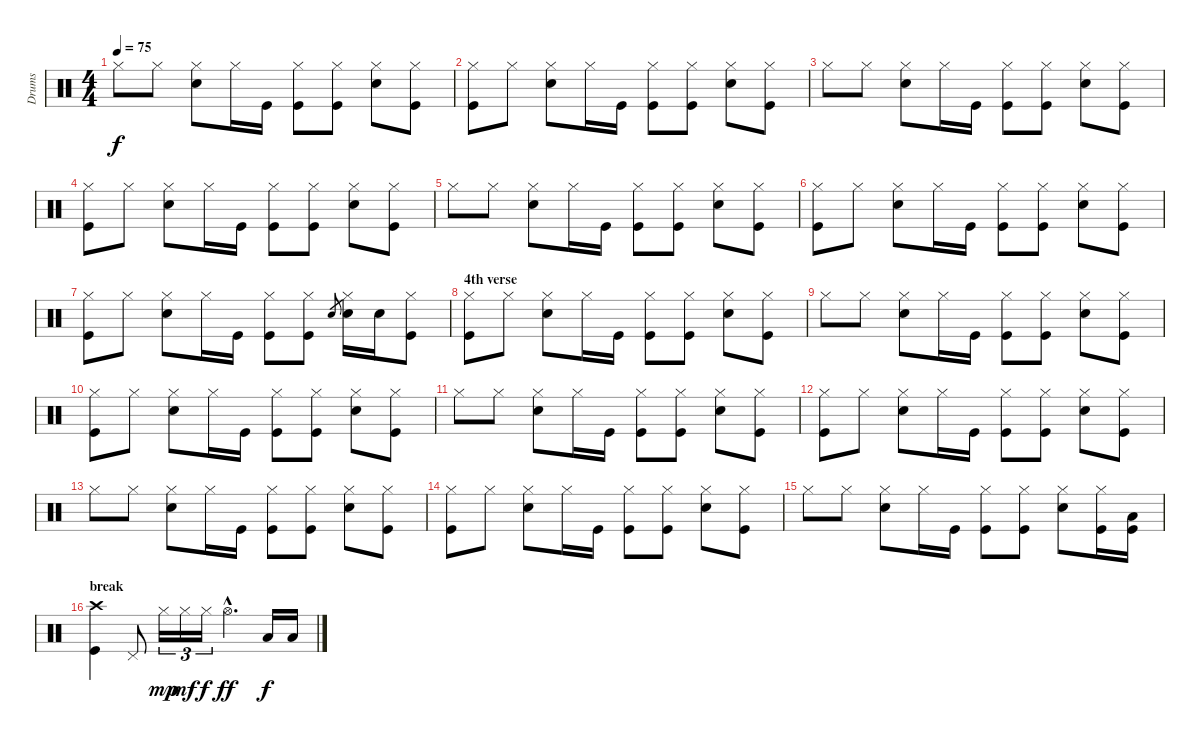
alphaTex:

\track ("Drums" "Drums") {instrument percussion}
\staff {score}
\articulation defaults
\ts (4 4)
\tempo 75
\clef neutral
\ks aminor "Hi-Hat (closed)".8{dy f} "Hi-Hat (closed)".8
("Hi-Hat (closed)" "Snare (hit) 2").8 "Hi-Hat (closed)".16 "Kick (hit)".16 ("Hi-Hat (closed)" "Kick (hit)").8 ("Hi-Hat (closed)" "Kick (hit)").8 ("Hi-Hat (closed)" "Snare (hit) 2").8 ("Hi-Hat (closed)" "Kick (hit)").8 |
("Hi-Hat (closed)" "Kick (hit)").8 "Hi-Hat (closed)".8 ("Hi-Hat (closed)" "Snare (hit) 2").8 "Hi-Hat (closed)".16 "Kick (hit)".16 ("Hi-Hat (closed)" "Kick (hit)").8 ("Hi-Hat (closed)" "Kick (hit)").8 ("Hi-Hat (closed)" "Snare (hit) 2").8 ("Hi-Hat (closed)" "Kick (hit)").8 |
"Hi-Hat (closed)".8 "Hi-Hat (closed)".8 ("Hi-Hat (closed)" "Snare (hit) 2").8 "Hi-Hat (closed)".16 "Kick (hit)".16 ("Hi-Hat (closed)" "Kick (hit)").8 ("Hi-Hat (closed)" "Kick (hit)").8 ("Hi-Hat (closed)" "Snare (hit) 2").8 ("Hi-Hat (closed)" "Kick (hit)").8 |
("Hi-Hat (closed)" "Kick (hit)").8 "Hi-Hat (closed)".8 ("Hi-Hat (closed)" "Snare (hit) 2").8 "Hi-Hat (closed)".16 "Kick (hit)".16 ("Hi-Hat (closed)" "Kick (hit)").8 ("Hi-Hat (closed)" "Kick (hit)").8 ("Hi-Hat (closed)" "Snare (hit) 2").8 ("Hi-Hat (closed)" "Kick (hit)").8 |
"Hi-Hat (closed)".8 "Hi-Hat (closed)".8 ("Hi-Hat (closed)" "Snare (hit) 2").8 "Hi-Hat (closed)".16 "Kick (hit)".16 ("Hi-Hat (closed)" "Kick (hit)").8 ("Hi-Hat (closed)" "Kick (hit)").8 ("Hi-Hat (closed)" "Snare (hit) 2").8 ("Hi-Hat (closed)" "Kick (hit)").8 |
("Hi-Hat (closed)" "Kick (hit)").8 "Hi-Hat (closed)".8 ("Hi-Hat (closed)" "Snare (hit) 2").8 "Hi-Hat (closed)".16 "Kick (hit)".16 ("Hi-Hat (closed)" "Kick (hit)").8 ("Hi-Hat (closed)" "Kick (hit)").8 ("Hi-Hat (closed)" "Snare (hit) 2").8 ("Hi-Hat (closed)" "Kick (hit)").8 |
("Hi-Hat (closed)" "Kick (hit)").8 "Hi-Hat (closed)".8 ("Hi-Hat (closed)" "Snare (hit) 2").8 "Hi-Hat (closed)".16 "Kick (hit)".16 ("Hi-Hat (closed)" "Kick (hit)").8 ("Hi-Hat (closed)" "Kick (hit)").8 "Snare (hit) 2".8{gr} ("Hi-Hat (closed)" "Snare (hit) 2").16 "Snare (hit) 2".16 ("Hi-Hat (closed)" "Kick (hit)").8 |
\section ("" "4th verse")
("Hi-Hat (closed)" "Kick (hit)").8 "Hi-Hat (closed)".8 ("Hi-Hat (closed)" "Snare (hit) 2").8 "Hi-Hat (closed)".16 "Kick (hit)".16 ("Hi-Hat (closed)" "Kick (hit)").8 ("Hi-Hat (closed)" "Kick (hit)").8 ("Hi-Hat (closed)" "Snare (hit) 2").8 ("Hi-Hat (closed)" "Kick (hit)").8 |
"Hi-Hat (closed)".8 "Hi-Hat (closed)".8 ("Hi-Hat (closed)" "Snare (hit) 2").8 "Hi-Hat (closed)".16 "Kick (hit)".16 ("Hi-Hat (closed)" "Kick (hit)").8 ("Hi-Hat (closed)" "Kick (hit)").8 ("Hi-Hat (closed)" "Snare (hit) 2").8 ("Hi-Hat (closed)" "Kick (hit)").8 |
("Hi-Hat (closed)" "Kick (hit)").8 "Hi-Hat (closed)".8 ("Hi-Hat (closed)" "Snare (hit) 2").8 "Hi-Hat (closed)".16 "Kick (hit)".16 ("Hi-Hat (closed)" "Kick (hit)").8 ("Hi-Hat (closed)" "Kick (hit)").8 ("Hi-Hat (closed)" "Snare (hit) 2").8 ("Hi-Hat (closed)" "Kick (hit)").8 |
"Hi-Hat (closed)".8 "Hi-Hat (closed)".8 ("Hi-Hat (closed)" "Snare (hit) 2").8 "Hi-Hat (closed)".16 "Kick (hit)".16 ("Hi-Hat (closed)" "Kick (hit)").8 ("Hi-Hat (closed)" "Kick (hit)").8 ("Hi-Hat (closed)" "Snare (hit) 2").8 ("Hi-Hat (closed)" "Kick (hit)").8 |
("Hi-Hat (closed)" "Kick (hit)").8 "Hi-Hat (closed)".8 ("Hi-Hat (closed)" "Snare (hit) 2").8 "Hi-Hat (closed)".16 "Kick (hit)".16 ("Hi-Hat (closed)" "Kick (hit)").8 ("Hi-Hat (closed)" "Kick (hit)").8 ("Hi-Hat (closed)" "Snare (hit) 2").8 ("Hi-Hat (closed)" "Kick (hit)").8 |
"Hi-Hat (closed)".8 "Hi-Hat (closed)".8 ("Hi-Hat (closed)" "Snare (hit) 2").8 "Hi-Hat (closed)".16 "Kick (hit)".16 ("Hi-Hat (closed)" "Kick (hit)").8 ("Hi-Hat (closed)" "Kick (hit)").8 ("Hi-Hat (closed)" "Snare (hit) 2").8 ("Hi-Hat (closed)" "Kick (hit)").8 |
("Hi-Hat (closed)" "Kick (hit)").8 "Hi-Hat (closed)".8 ("Hi-Hat (closed)" "Snare (hit) 2").8 "Hi-Hat (closed)".16 "Kick (hit)".16 ("Hi-Hat (closed)" "Kick (hit)").8 ("Hi-Hat (closed)" "Kick (hit)").8 ("Hi-Hat (closed)" "Snare (hit) 2").8 ("Hi-Hat (closed)" "Kick (hit)").8 |
"Hi-Hat (closed)".8 "Hi-Hat (closed)".8 ("Hi-Hat (closed)" "Snare (hit) 2").8 "Hi-Hat (closed)".16 "Kick (hit)".16 ("Hi-Hat (closed)" "Kick (hit)").8 ("Hi-Hat (closed)" "Kick (hit)").8 ("Hi-Hat (closed)" "Snare (hit) 2").8 ("Hi-Hat (closed)" "Kick (hit)").16 ("Low Floor Tom (hit)" "Kick (hit)").16 |
\section ("" "break")
("Crash high (hit)" "Kick (hit)").4 "Pedal Hi-Hat (hit)".8 "Hi-Hat (closed)".16{tu (3 2) dy mp} "Hi-Hat (closed)".16{tu (3 2) dy mf} "Hi-Hat (closed)".16{tu (3 2) dy f} "Hi-Hat (open)"{hac}.4{d dy ff} "Low Floor Tom (hit)".16{dy f} "Low Floor Tom (hit)".16
